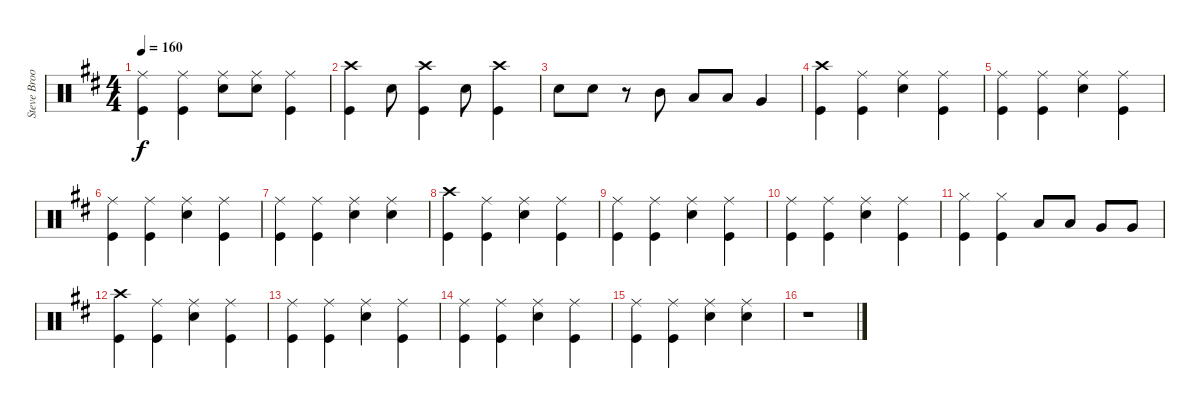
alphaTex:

\track ("Steve Brookins Drums" "Steve Broo") {instrument percussion}
\staff {score}
\articulation defaults
\ts (4 4)
\tempo 160
\clef neutral
\ks d
("Ride (middle)" "Kick (hit)").4{dy f} ("Ride (middle)" "Kick (hit)").4 ("Ride (middle)" "Snare (hit) 2").8 ("Ride (middle)" "Snare (hit) 2").8 ("Ride (middle)" "Kick (hit)").4 |
("Crash high (hit)" "Kick (hit)").4 "Snare (hit) 2".8 ("Crash high (hit)" "Kick (hit)").4 "Snare (hit) 2".8 ("Crash high (hit)" "Kick (hit)").4 |
"Snare (hit) 2".8 "Snare (hit) 2".8 r.8 "Mid Tom (hit)".8 "Low Tom (hit)".8 "Low Tom (hit)".8 "Very Low Tom (hit)".4 |
("Crash high (hit)" "Kick (hit)").4 ("Ride (middle)" "Kick (hit)").4 ("Ride (middle)" "Snare (hit) 2").4 ("Ride (middle)" "Kick (hit)").4 |
("Ride (middle)" "Kick (hit)").4 ("Ride (middle)" "Kick (hit)").4 ("Ride (middle)" "Snare (hit) 2").4 ("Ride (middle)" "Kick (hit)").4 |
("Ride (middle)" "Kick (hit)").4 ("Ride (middle)" "Kick (hit)").4 ("Ride (middle)" "Snare (hit) 2").4 ("Ride (middle)" "Kick (hit)").4 |
("Ride (middle)" "Kick (hit)").4 ("Ride (middle)" "Kick (hit)").4 ("Ride (middle)" "Snare (hit) 2").4 ("Ride (middle)" "Snare (hit) 2").4 |
("Crash high (hit)" "Kick (hit)").4 ("Ride (middle)" "Kick (hit)").4 ("Ride (middle)" "Snare (hit) 2").4 ("Ride (middle)" "Kick (hit)").4 |
("Ride (middle)" "Kick (hit)").4 ("Ride (middle)" "Kick (hit)").4 ("Ride (middle)" "Snare (hit) 2").4 ("Ride (middle)" "Kick (hit)").4 |
("Ride (middle)" "Kick (hit)").4 ("Ride (middle)" "Kick (hit)").4 ("Ride (middle)" "Snare (hit) 2").4 ("Ride (middle)" "Kick (hit)").4 |
("Hi-Hat (closed)" "Kick (hit)").4 ("Hi-Hat (closed)" "Kick (hit)").4 "Low Tom (hit)".8 "Low Tom (hit)".8 "Very Low Tom (hit)".8 "Very Low Tom (hit)".8 |
("Crash high (hit)" "Kick (hit)").4 ("Ride (middle)" "Kick (hit)").4 ("Ride (middle)" "Snare (hit) 2").4 ("Ride (middle)" "Kick (hit)").4 |
("Ride (middle)" "Kick (hit)").4 ("Ride (middle)" "Kick (hit)").4 ("Ride (middle)" "Snare (hit) 2").4 ("Ride (middle)" "Kick (hit)").4 |
("Ride (middle)" "Kick (hit)").4 ("Ride (middle)" "Kick (hit)").4 ("Ride (middle)" "Snare (hit) 2").4 ("Ride (middle)" "Kick (hit)").4 |
("Ride (middle)" "Kick (hit)").4 ("Ride (middle)" "Kick (hit)").4 ("Ride (middle)" "Snare (hit) 2").4 ("Ride (middle)" "Snare (hit) 2").4 |
r.1{volume 9}
